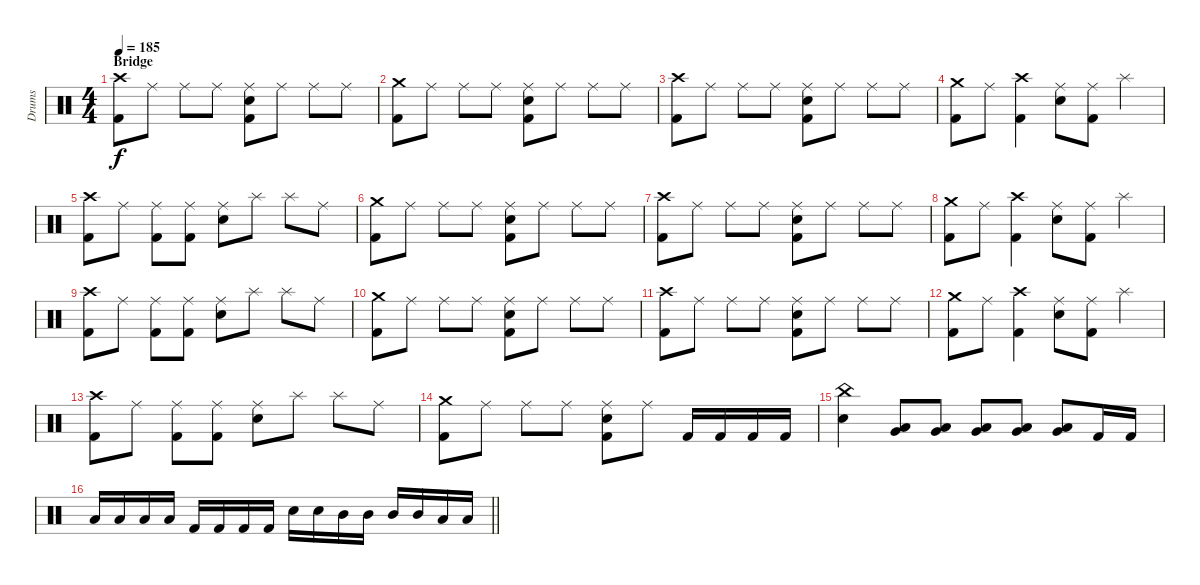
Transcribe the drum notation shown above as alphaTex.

\track ("Drums" "Drums") {instrument percussion}
\staff {score}
\articulation defaults
\ts (4 4)
\section ("" "Bridge")
\tempo 185
\clef neutral
\ks c
("Crash high (hit)" "Kick (hit) 2").8{dy f} "Ride (middle)".8 "Ride (middle)".8 "Ride (middle)".8 ("Ride (middle)" "Electric Snare (hit)" "Kick (hit) 2").8 "Ride (middle)".8 "Ride (middle)".8 "Ride (middle)".8 |
("Crash medium (hit)" "Kick (hit) 2").8 "Ride (middle)".8 "Ride (middle)".8 "Ride (middle)".8 ("Ride (middle)" "Electric Snare (hit)" "Kick (hit) 2").8 "Ride (middle)".8 "Ride (middle)".8 "Ride (middle)".8 |
("Crash high (hit)" "Kick (hit) 2").8 "Ride (middle)".8 "Ride (middle)".8 "Ride (middle)".8 ("Ride (middle)" "Electric Snare (hit)" "Kick (hit) 2").8 "Ride (middle)".8 "Ride (middle)".8 "Ride (middle)".8 |
("Crash medium (hit)" "Kick (hit) 2").8 "Ride (middle)".8 ("Crash high (hit)" "Kick (hit) 2").4 ("Ride (middle)" "Electric Snare (hit)").8 ("Ride (middle)" "Kick (hit) 2").8 "Splash (hit)".4 |
("Crash high (hit)" "Kick (hit) 2").8 "Ride (middle)".8 ("Ride (middle)" "Kick (hit) 2").8 ("Ride (middle)" "Kick (hit) 2").8 ("Ride (middle)" "Electric Snare (hit)").8 "Splash (hit)".8{balance 4} "Splash (hit)".8{balance 12} "Ride (middle)".8{balance 8} |
("Crash medium (hit)" "Kick (hit) 2").8 "Ride (middle)".8 "Ride (middle)".8 "Ride (middle)".8 ("Ride (middle)" "Electric Snare (hit)" "Kick (hit) 2").8 "Ride (middle)".8 "Ride (middle)".8 "Ride (middle)".8 |
("Crash high (hit)" "Kick (hit) 2").8 "Ride (middle)".8 "Ride (middle)".8 "Ride (middle)".8 ("Ride (middle)" "Electric Snare (hit)" "Kick (hit) 2").8 "Ride (middle)".8 "Ride (middle)".8 "Ride (middle)".8 |
("Crash medium (hit)" "Kick (hit) 2").8 "Ride (middle)".8 ("Crash high (hit)" "Kick (hit) 2").4 ("Ride (middle)" "Electric Snare (hit)").8 ("Ride (middle)" "Kick (hit) 2").8 "Splash (hit)".4 |
("Crash high (hit)" "Kick (hit) 2").8 "Ride (middle)".8 ("Ride (middle)" "Kick (hit) 2").8 ("Ride (middle)" "Kick (hit) 2").8 ("Ride (middle)" "Electric Snare (hit)").8 "Splash (hit)".8{balance 4} "Splash (hit)".8{balance 12} "Ride (middle)".8{balance 8} |
("Crash medium (hit)" "Kick (hit) 2").8 "Ride (middle)".8 "Ride (middle)".8 "Ride (middle)".8 ("Ride (middle)" "Electric Snare (hit)" "Kick (hit) 2").8 "Ride (middle)".8 "Ride (middle)".8 "Ride (middle)".8 |
("Crash high (hit)" "Kick (hit) 2").8 "Ride (middle)".8 "Ride (middle)".8 "Ride (middle)".8 ("Ride (middle)" "Electric Snare (hit)" "Kick (hit) 2").8 "Ride (middle)".8 "Ride (middle)".8 "Ride (middle)".8 |
("Crash medium (hit)" "Kick (hit) 2").8 "Ride (middle)".8 ("Crash high (hit)" "Kick (hit) 2").4 ("Ride (middle)" "Electric Snare (hit)").8 ("Ride (middle)" "Kick (hit) 2").8 "Splash (hit)".4 |
("Crash high (hit)" "Kick (hit) 2").8 "Ride (middle)".8 ("Ride (middle)" "Kick (hit) 2").8 ("Ride (middle)" "Kick (hit) 2").8 ("Ride (middle)" "Electric Snare (hit)").8 "Splash (hit)".8{balance 4} "Splash (hit)".8{balance 12} "Ride (middle)".8{balance 8} |
("Crash medium (hit)" "Kick (hit) 2").8 "Ride (middle)".8 "Ride (middle)".8 "Ride (middle)".8 ("Ride (middle)" "Electric Snare (hit)" "Kick (hit) 2").8 "Ride (middle)".8 "Kick (hit) 2".16 "Kick (hit) 2".16 "Kick (hit) 2".16 "Kick (hit) 2".16 |
("China (hit)" "Electric Snare (hit)").4 ("Low Tom (hit)" "Very Low Tom (hit)").8 ("Low Tom (hit)" "Very Low Tom (hit)").8 ("Low Tom (hit)" "Very Low Tom (hit)").8 ("Low Tom (hit)" "Very Low Tom (hit)").8 ("Low Tom (hit)" "Very Low Tom (hit)").8 "Kick (hit) 2".16 "Kick (hit) 2".16 |
\barLineRight lightlight "Low Tom (hit)".16 "Low Tom (hit)".16 "Low Tom (hit)".16 "Low Tom (hit)".16 "Kick (hit) 2".16 "Kick (hit) 2".16 "Kick (hit) 2".16 "Kick (hit) 2".16 "Electric Snare (hit)".16 "Electric Snare (hit)".16 "Mid Tom (hit)".16 "Mid Tom (hit)".16 "Mid Tom (hit)".16 "Mid Tom (hit)".16 "Low Tom (hit)".16 "Low Tom (hit)".16
